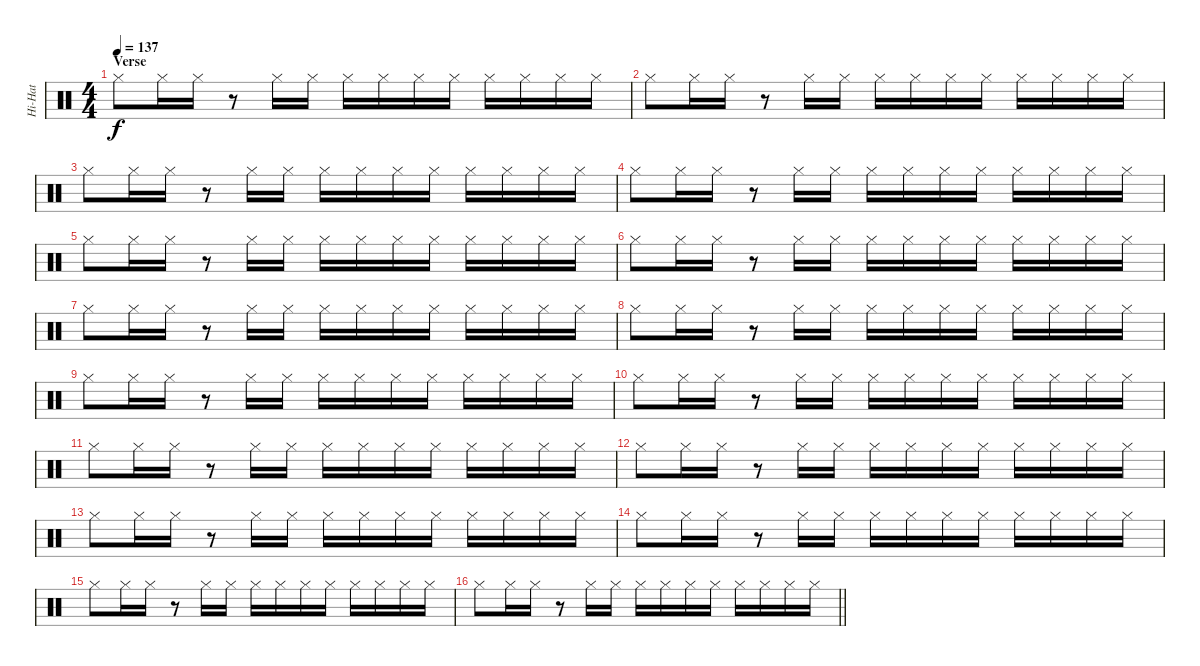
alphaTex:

\track ("Hi-Hat" "Hi-Hat") {instrument percussion}
\staff {score}
\articulation defaults
\ts (4 4)
\section ("" "Verse")
\tempo 137
\clef neutral
\ks c "Hi-Hat (closed)".8{dy f} "Hi-Hat (closed)".16 "Hi-Hat (closed)".16
r.8 "Hi-Hat (closed)".16 "Hi-Hat (closed)".16 "Hi-Hat (closed)".16 "Hi-Hat (closed)".16 "Hi-Hat (closed)".16 "Hi-Hat (closed)".16 "Hi-Hat (closed)".16 "Hi-Hat (closed)".16 "Hi-Hat (closed)".16 "Hi-Hat (closed)".16 |
"Hi-Hat (closed)".8 "Hi-Hat (closed)".16 "Hi-Hat (closed)".16 r.8 "Hi-Hat (closed)".16 "Hi-Hat (closed)".16 "Hi-Hat (closed)".16 "Hi-Hat (closed)".16 "Hi-Hat (closed)".16 "Hi-Hat (closed)".16 "Hi-Hat (closed)".16 "Hi-Hat (closed)".16 "Hi-Hat (closed)".16 "Hi-Hat (closed)".16 |
"Hi-Hat (closed)".8 "Hi-Hat (closed)".16 "Hi-Hat (closed)".16 r.8 "Hi-Hat (closed)".16 "Hi-Hat (closed)".16 "Hi-Hat (closed)".16 "Hi-Hat (closed)".16 "Hi-Hat (closed)".16 "Hi-Hat (closed)".16 "Hi-Hat (closed)".16 "Hi-Hat (closed)".16 "Hi-Hat (closed)".16 "Hi-Hat (closed)".16 |
"Hi-Hat (closed)".8 "Hi-Hat (closed)".16 "Hi-Hat (closed)".16 r.8 "Hi-Hat (closed)".16 "Hi-Hat (closed)".16 "Hi-Hat (closed)".16 "Hi-Hat (closed)".16 "Hi-Hat (closed)".16 "Hi-Hat (closed)".16 "Hi-Hat (closed)".16 "Hi-Hat (closed)".16 "Hi-Hat (closed)".16 "Hi-Hat (closed)".16 |
"Hi-Hat (closed)".8 "Hi-Hat (closed)".16 "Hi-Hat (closed)".16 r.8 "Hi-Hat (closed)".16 "Hi-Hat (closed)".16 "Hi-Hat (closed)".16 "Hi-Hat (closed)".16 "Hi-Hat (closed)".16 "Hi-Hat (closed)".16 "Hi-Hat (closed)".16 "Hi-Hat (closed)".16 "Hi-Hat (closed)".16 "Hi-Hat (closed)".16 |
"Hi-Hat (closed)".8 "Hi-Hat (closed)".16 "Hi-Hat (closed)".16 r.8 "Hi-Hat (closed)".16 "Hi-Hat (closed)".16 "Hi-Hat (closed)".16 "Hi-Hat (closed)".16 "Hi-Hat (closed)".16 "Hi-Hat (closed)".16 "Hi-Hat (closed)".16 "Hi-Hat (closed)".16 "Hi-Hat (closed)".16 "Hi-Hat (closed)".16 |
"Hi-Hat (closed)".8 "Hi-Hat (closed)".16 "Hi-Hat (closed)".16 r.8 "Hi-Hat (closed)".16 "Hi-Hat (closed)".16 "Hi-Hat (closed)".16 "Hi-Hat (closed)".16 "Hi-Hat (closed)".16 "Hi-Hat (closed)".16 "Hi-Hat (closed)".16 "Hi-Hat (closed)".16 "Hi-Hat (closed)".16 "Hi-Hat (closed)".16 |
"Hi-Hat (closed)".8 "Hi-Hat (closed)".16 "Hi-Hat (closed)".16 r.8 "Hi-Hat (closed)".16 "Hi-Hat (closed)".16 "Hi-Hat (closed)".16 "Hi-Hat (closed)".16 "Hi-Hat (closed)".16 "Hi-Hat (closed)".16 "Hi-Hat (closed)".16 "Hi-Hat (closed)".16 "Hi-Hat (closed)".16 "Hi-Hat (closed)".16 |
"Hi-Hat (closed)".8 "Hi-Hat (closed)".16 "Hi-Hat (closed)".16 r.8 "Hi-Hat (closed)".16 "Hi-Hat (closed)".16 "Hi-Hat (closed)".16 "Hi-Hat (closed)".16 "Hi-Hat (closed)".16 "Hi-Hat (closed)".16 "Hi-Hat (closed)".16 "Hi-Hat (closed)".16 "Hi-Hat (closed)".16 "Hi-Hat (closed)".16 |
"Hi-Hat (closed)".8 "Hi-Hat (closed)".16 "Hi-Hat (closed)".16 r.8 "Hi-Hat (closed)".16 "Hi-Hat (closed)".16 "Hi-Hat (closed)".16 "Hi-Hat (closed)".16 "Hi-Hat (closed)".16 "Hi-Hat (closed)".16 "Hi-Hat (closed)".16 "Hi-Hat (closed)".16 "Hi-Hat (closed)".16 "Hi-Hat (closed)".16 |
"Hi-Hat (closed)".8 "Hi-Hat (closed)".16 "Hi-Hat (closed)".16 r.8 "Hi-Hat (closed)".16 "Hi-Hat (closed)".16 "Hi-Hat (closed)".16 "Hi-Hat (closed)".16 "Hi-Hat (closed)".16 "Hi-Hat (closed)".16 "Hi-Hat (closed)".16 "Hi-Hat (closed)".16 "Hi-Hat (closed)".16 "Hi-Hat (closed)".16 |
"Hi-Hat (closed)".8 "Hi-Hat (closed)".16 "Hi-Hat (closed)".16 r.8 "Hi-Hat (closed)".16 "Hi-Hat (closed)".16 "Hi-Hat (closed)".16 "Hi-Hat (closed)".16 "Hi-Hat (closed)".16 "Hi-Hat (closed)".16 "Hi-Hat (closed)".16 "Hi-Hat (closed)".16 "Hi-Hat (closed)".16 "Hi-Hat (closed)".16 |
"Hi-Hat (closed)".8 "Hi-Hat (closed)".16 "Hi-Hat (closed)".16 r.8 "Hi-Hat (closed)".16 "Hi-Hat (closed)".16 "Hi-Hat (closed)".16 "Hi-Hat (closed)".16 "Hi-Hat (closed)".16 "Hi-Hat (closed)".16 "Hi-Hat (closed)".16 "Hi-Hat (closed)".16 "Hi-Hat (closed)".16 "Hi-Hat (closed)".16 |
"Hi-Hat (closed)".8 "Hi-Hat (closed)".16 "Hi-Hat (closed)".16 r.8 "Hi-Hat (closed)".16 "Hi-Hat (closed)".16 "Hi-Hat (closed)".16 "Hi-Hat (closed)".16 "Hi-Hat (closed)".16 "Hi-Hat (closed)".16 "Hi-Hat (closed)".16 "Hi-Hat (closed)".16 "Hi-Hat (closed)".16 "Hi-Hat (closed)".16 |
"Hi-Hat (closed)".8 "Hi-Hat (closed)".16 "Hi-Hat (closed)".16 r.8 "Hi-Hat (closed)".16 "Hi-Hat (closed)".16 "Hi-Hat (closed)".16 "Hi-Hat (closed)".16 "Hi-Hat (closed)".16 "Hi-Hat (closed)".16 "Hi-Hat (closed)".16 "Hi-Hat (closed)".16 "Hi-Hat (closed)".16 "Hi-Hat (closed)".16 |
\barLineRight lightlight "Hi-Hat (closed)".8 "Hi-Hat (closed)".16 "Hi-Hat (closed)".16
r.8 "Hi-Hat (closed)".16 "Hi-Hat (closed)".16 "Hi-Hat (closed)".16 "Hi-Hat (closed)".16 "Hi-Hat (closed)".16 "Hi-Hat (closed)".16 "Hi-Hat (closed)".16 "Hi-Hat (closed)".16 "Hi-Hat (closed)".16 "Hi-Hat (closed)".16
